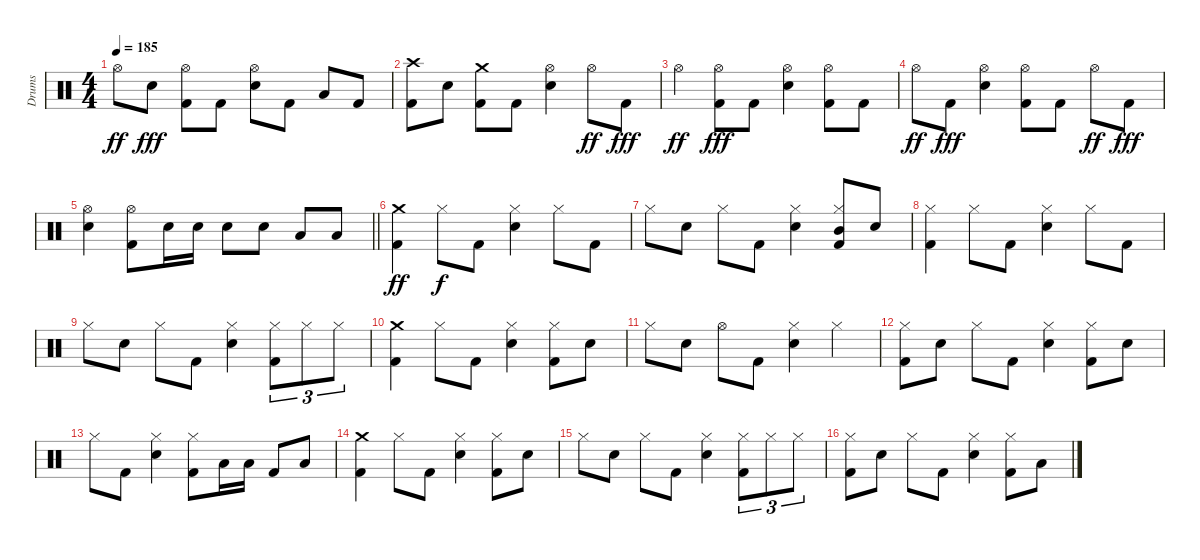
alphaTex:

\track ("Drums" "Drums") {instrument percussion}
\staff {score}
\articulation defaults
\ts (4 4)
\tempo 185
\clef neutral
\ks c "Hi-Hat (open)".8{dy ff} "Snare (hit) 2".8{dy fff}
("Hi-Hat (open)" "Kick (hit) 2").8 "Kick (hit) 2".8 ("Hi-Hat (open)" "Snare (hit) 2").8 "Kick (hit) 2".8 "Low Tom (hit)".8 "Kick (hit) 2".8 |
("Crash high (hit)" "Kick (hit) 2").8 "Snare (hit) 2".8 ("Crash medium (hit)" "Kick (hit) 2").8 "Kick (hit) 2".8 ("Hi-Hat (open)" "Snare (hit) 2").4 "Hi-Hat (open)".8{dy ff} "Kick (hit) 2".8{dy fff} |
"Hi-Hat (open)".4{dy ff} ("Hi-Hat (open)" "Kick (hit) 2").8{dy fff} "Kick (hit) 2".8 ("Hi-Hat (open)" "Snare (hit) 2").4 ("Hi-Hat (open)" "Kick (hit) 2").8 "Kick (hit) 2".8 |
"Hi-Hat (open)".8{dy ff} "Kick (hit) 2".8{dy fff} ("Hi-Hat (open)" "Snare (hit) 2").4 ("Hi-Hat (open)" "Kick (hit) 2").8 "Kick (hit) 2".8 "Hi-Hat (open)".8{dy ff} "Kick (hit) 2".8{dy fff} |
\barLineRight lightlight
("Hi-Hat (open)" "Snare (hit) 2").4 ("Hi-Hat (open)" "Kick (hit) 2").8 "Snare (hit) 2".16 "Snare (hit) 2".16 "Snare (hit) 2".8 "Snare (hit) 2".8 "Low Tom (hit)".8 "Low Tom (hit)".8 |
\section ("" "")
("Crash medium (hit)" "Kick (hit) 2").4{dy ff} "Hi-Hat (closed)".8{dy f} "Kick (hit) 2".8 ("Hi-Hat (closed)" "Snare (hit) 2").4 "Hi-Hat (closed)".8 "Kick (hit) 2".8 |
"Hi-Hat (closed)".8 "Snare (hit) 2".8 "Hi-Hat (closed)".8 "Kick (hit) 2".8 ("Hi-Hat (closed)" "Snare (hit) 2").4 ("Hi-Hat (closed)" "Mid Tom (hit)" "Kick (hit) 2").8 "Snare (hit) 2".8 |
("Hi-Hat (closed)" "Kick (hit) 2").4 "Hi-Hat (closed)".8 "Kick (hit) 2".8 ("Hi-Hat (closed)" "Snare (hit) 2").4 "Hi-Hat (closed)".8 "Kick (hit) 2".8 |
"Hi-Hat (closed)".8 "Snare (hit) 2".8 "Hi-Hat (closed)".8 "Kick (hit) 2".8 ("Hi-Hat (closed)" "Snare (hit) 2").4 ("Hi-Hat (closed)" "Kick (hit) 2").8{tu (3 2)} "Hi-Hat (closed)".8{tu (3 2)} "Hi-Hat (closed)".8{tu (3 2)} |
("Crash medium (hit)" "Kick (hit) 2").4 "Hi-Hat (closed)".8 "Kick (hit) 2".8 ("Hi-Hat (closed)" "Snare (hit) 2").4 ("Hi-Hat (closed)" "Kick (hit) 2").8 "Snare (hit) 2".8 |
"Hi-Hat (closed)".8 "Snare (hit) 2".8 "Hi-Hat (open)".8 "Kick (hit) 2".8 ("Hi-Hat (closed)" "Snare (hit) 2").4 "Hi-Hat (closed)".4 |
("Hi-Hat (closed)" "Kick (hit) 2").8 "Snare (hit) 2".8 "Hi-Hat (closed)".8 "Kick (hit) 2".8 ("Hi-Hat (closed)" "Snare (hit) 2").4 ("Hi-Hat (closed)" "Kick (hit) 2").8 "Snare (hit) 2".8 |
"Hi-Hat (closed)".8 "Kick (hit) 2".8 ("Hi-Hat (closed)" "Snare (hit) 2").4 ("Hi-Hat (closed)" "Kick (hit) 2").8 "Low Tom (hit)".16 "Low Tom (hit)".16 "Kick (hit) 2".8 "Low Tom (hit)".8 |
("Crash medium (hit)" "Kick (hit) 2").4 "Hi-Hat (closed)".8 "Kick (hit) 2".8 ("Hi-Hat (closed)" "Snare (hit) 2").4 ("Hi-Hat (closed)" "Kick (hit) 2").8 "Snare (hit) 2".8 |
"Hi-Hat (closed)".8 "Snare (hit) 2".8 "Hi-Hat (closed)".8 "Kick (hit) 2".8 ("Hi-Hat (closed)" "Snare (hit) 2").4 ("Hi-Hat (closed)" "Kick (hit) 2").8{tu (3 2)} "Hi-Hat (closed)".8{tu (3 2)} "Hi-Hat (closed)".8{tu (3 2)} |
("Hi-Hat (closed)" "Kick (hit) 2").8 "Snare (hit) 2".8 "Hi-Hat (closed)".8 "Kick (hit) 2".8 ("Hi-Hat (closed)" "Snare (hit) 2").4 ("Hi-Hat (closed)" "Kick (hit) 2").8 "Low Tom (hit)".8
